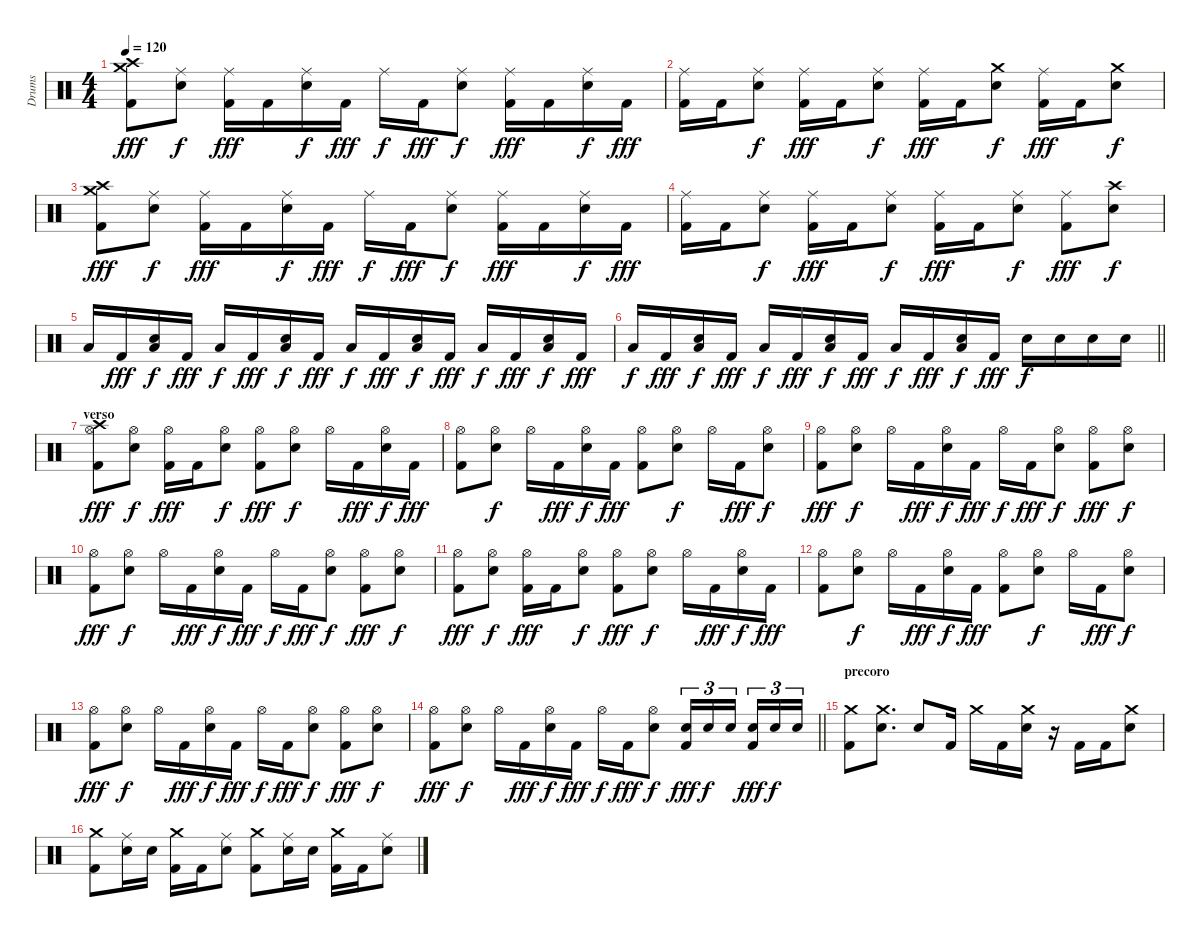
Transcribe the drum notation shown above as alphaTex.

\track ("Drums" "Drums") {instrument percussion}
\staff {score}
\articulation defaults
\ts (4 4)
\tempo 120
\clef neutral
\ks c
("Crash high (hit)" "Crash medium (hit)" "Kick (hit) 2").8{dy fff} ("Ride (middle)" "Electric Snare (hit)").8{dy f} ("Ride (middle)" "Kick (hit) 2").16{dy fff} "Kick (hit) 2".16 ("Ride (middle)" "Electric Snare (hit)").16{dy f} "Kick (hit) 2".16{dy fff} "Ride (middle)".16{dy f} "Kick (hit) 2".16{dy fff} ("Ride (middle)" "Electric Snare (hit)").8{dy f} ("Ride (middle)" "Kick (hit) 2").16{dy fff} "Kick (hit) 2".16 ("Ride (middle)" "Electric Snare (hit)").16{dy f} "Kick (hit) 2".16{dy fff} |
("Ride (middle)" "Kick (hit) 2").16 "Kick (hit) 2".16 ("Ride (middle)" "Electric Snare (hit)").8{dy f} ("Ride (middle)" "Kick (hit) 2").16{dy fff} "Kick (hit) 2".16 ("Ride (middle)" "Electric Snare (hit)").8{dy f} ("Ride (middle)" "Kick (hit) 2").16{dy fff} "Kick (hit) 2".16 ("Crash medium (hit)" "Electric Snare (hit)").8{dy f} ("Ride (middle)" "Kick (hit) 2").16{dy fff} "Kick (hit) 2".16 ("Crash medium (hit)" "Electric Snare (hit)").8{dy f} |
("Crash high (hit)" "Crash medium (hit)" "Kick (hit) 2").8{dy fff} ("Ride (middle)" "Electric Snare (hit)").8{dy f} ("Ride (middle)" "Kick (hit) 2").16{dy fff} "Kick (hit) 2".16 ("Ride (middle)" "Electric Snare (hit)").16{dy f} "Kick (hit) 2".16{dy fff} "Ride (middle)".16{dy f} "Kick (hit) 2".16{dy fff} ("Ride (middle)" "Electric Snare (hit)").8{dy f} ("Ride (middle)" "Kick (hit) 2").16{dy fff} "Kick (hit) 2".16 ("Ride (middle)" "Electric Snare (hit)").16{dy f} "Kick (hit) 2".16{dy fff} |
("Ride (middle)" "Kick (hit) 2").16 "Kick (hit) 2".16 ("Ride (middle)" "Electric Snare (hit)").8{dy f} ("Ride (middle)" "Kick (hit) 2").16{dy fff} "Kick (hit) 2".16 ("Ride (middle)" "Electric Snare (hit)").8{dy f} ("Ride (middle)" "Kick (hit) 2").16{dy fff} "Kick (hit) 2".16 ("Ride (middle)" "Electric Snare (hit)").8{dy f} ("Ride (middle)" "Kick (hit) 2").8{dy fff} ("Crash high (hit)" "Electric Snare (hit)").8{dy f} |
"Low Floor Tom (hit)".16 "Kick (hit) 2".16{dy fff} ("Low Floor Tom (hit)" "Electric Snare (hit)").16{dy f} "Kick (hit) 2".16{dy fff} "Low Floor Tom (hit)".16{dy f} "Kick (hit) 2".16{dy fff} ("Low Floor Tom (hit)" "Electric Snare (hit)").16{dy f} "Kick (hit) 2".16{dy fff} "Low Floor Tom (hit)".16{dy f} "Kick (hit) 2".16{dy fff} ("Low Floor Tom (hit)" "Electric Snare (hit)").16{dy f} "Kick (hit) 2".16{dy fff} "Low Floor Tom (hit)".16{dy f} "Kick (hit) 2".16{dy fff} ("Low Floor Tom (hit)" "Electric Snare (hit)").16{dy f} "Kick (hit) 2".16{dy fff} |
\barLineRight lightlight "Low Floor Tom (hit)".16{dy f} "Kick (hit) 2".16{dy fff}
("Low Floor Tom (hit)" "Electric Snare (hit)").16{dy f} "Kick (hit) 2".16{dy fff} "Low Floor Tom (hit)".16{dy f} "Kick (hit) 2".16{dy fff} ("Low Floor Tom (hit)" "Electric Snare (hit)").16{dy f} "Kick (hit) 2".16{dy fff} "Low Floor Tom (hit)".16{dy f} "Kick (hit) 2".16{dy fff} ("Low Floor Tom (hit)" "Electric Snare (hit)").16{dy f} "Kick (hit) 2".16{dy fff} "Electric Snare (hit)".16{dy f} "Electric Snare (hit)".16 "Electric Snare (hit)".16 "Electric Snare (hit)".16 |
\section ("" "verso")
("Crash high (hit)" "Hi-Hat (open)" "Kick (hit) 2").8{dy fff} ("Hi-Hat (open)" "Electric Snare (hit)").8{dy f} ("Hi-Hat (open)" "Kick (hit) 2").16{dy fff} "Kick (hit) 2".16 ("Hi-Hat (open)" "Electric Snare (hit)").8{dy f} ("Hi-Hat (open)" "Kick (hit) 2").8{dy fff} ("Hi-Hat (open)" "Electric Snare (hit)").8{dy f} "Hi-Hat (open)".16 "Kick (hit) 2".16{dy fff} ("Hi-Hat (open)" "Electric Snare (hit)").16{dy f} "Kick (hit) 2".16{dy fff} |
("Hi-Hat (open)" "Kick (hit) 2").8 ("Hi-Hat (open)" "Electric Snare (hit)").8{dy f} "Hi-Hat (open)".16 "Kick (hit) 2".16{dy fff} ("Hi-Hat (open)" "Electric Snare (hit)").16{dy f} "Kick (hit) 2".16{dy fff} ("Hi-Hat (open)" "Kick (hit) 2").8 ("Hi-Hat (open)" "Electric Snare (hit)").8{dy f} "Hi-Hat (open)".16 "Kick (hit) 2".16{dy fff} ("Hi-Hat (open)" "Electric Snare (hit)").8{dy f} |
("Hi-Hat (open)" "Kick (hit) 2").8{dy fff} ("Hi-Hat (open)" "Electric Snare (hit)").8{dy f} "Hi-Hat (open)".16 "Kick (hit) 2".16{dy fff} ("Hi-Hat (open)" "Electric Snare (hit)").16{dy f} "Kick (hit) 2".16{dy fff} "Hi-Hat (open)".16{dy f} "Kick (hit) 2".16{dy fff} ("Hi-Hat (open)" "Electric Snare (hit)").8{dy f} ("Hi-Hat (open)" "Kick (hit) 2").8{dy fff} ("Hi-Hat (open)" "Electric Snare (hit)").8{dy f} |
("Hi-Hat (open)" "Kick (hit) 2").8{dy fff} ("Hi-Hat (open)" "Electric Snare (hit)").8{dy f} "Hi-Hat (open)".16 "Kick (hit) 2".16{dy fff} ("Hi-Hat (open)" "Electric Snare (hit)").16{dy f} "Kick (hit) 2".16{dy fff} "Hi-Hat (open)".16{dy f} "Kick (hit) 2".16{dy fff} ("Hi-Hat (open)" "Electric Snare (hit)").8{dy f} ("Hi-Hat (open)" "Kick (hit) 2").8{dy fff} ("Hi-Hat (open)" "Electric Snare (hit)").8{dy f} |
("Hi-Hat (open)" "Kick (hit) 2").8{dy fff} ("Hi-Hat (open)" "Electric Snare (hit)").8{dy f} ("Hi-Hat (open)" "Kick (hit) 2").16{dy fff} "Kick (hit) 2".16 ("Hi-Hat (open)" "Electric Snare (hit)").8{dy f} ("Hi-Hat (open)" "Kick (hit) 2").8{dy fff} ("Hi-Hat (open)" "Electric Snare (hit)").8{dy f} "Hi-Hat (open)".16 "Kick (hit) 2".16{dy fff} ("Hi-Hat (open)" "Electric Snare (hit)").16{dy f} "Kick (hit) 2".16{dy fff} |
("Hi-Hat (open)" "Kick (hit) 2").8 ("Hi-Hat (open)" "Electric Snare (hit)").8{dy f} "Hi-Hat (open)".16 "Kick (hit) 2".16{dy fff} ("Hi-Hat (open)" "Electric Snare (hit)").16{dy f} "Kick (hit) 2".16{dy fff} ("Hi-Hat (open)" "Kick (hit) 2").8 ("Hi-Hat (open)" "Electric Snare (hit)").8{dy f} "Hi-Hat (open)".16 "Kick (hit) 2".16{dy fff} ("Hi-Hat (open)" "Electric Snare (hit)").8{dy f} |
("Hi-Hat (open)" "Kick (hit) 2").8{dy fff} ("Hi-Hat (open)" "Electric Snare (hit)").8{dy f} "Hi-Hat (open)".16 "Kick (hit) 2".16{dy fff} ("Hi-Hat (open)" "Electric Snare (hit)").16{dy f} "Kick (hit) 2".16{dy fff} "Hi-Hat (open)".16{dy f} "Kick (hit) 2".16{dy fff} ("Hi-Hat (open)" "Electric Snare (hit)").8{dy f} ("Hi-Hat (open)" "Kick (hit) 2").8{dy fff} ("Hi-Hat (open)" "Electric Snare (hit)").8{dy f} |
\barLineRight lightlight
("Hi-Hat (open)" "Kick (hit) 2").8{dy fff} ("Hi-Hat (open)" "Electric Snare (hit)").8{dy f} "Hi-Hat (open)".16 "Kick (hit) 2".16{dy fff} ("Hi-Hat (open)" "Electric Snare (hit)").16{dy f} "Kick (hit) 2".16{dy fff} "Hi-Hat (open)".16{dy f} "Kick (hit) 2".16{dy fff} ("Hi-Hat (open)" "Electric Snare (hit)").8{dy f} ("Electric Snare (hit)" "Kick (hit) 2").16{tu (3 2) dy fff} "Electric Snare (hit)".16{tu (3 2) dy f} "Electric Snare (hit)".16{tu (3 2)} ("Electric Snare (hit)" "Kick (hit) 2").16{tu (3 2) dy fff} "Electric Snare (hit)".16{tu (3 2) dy f} "Electric Snare (hit)".16{tu (3 2)} |
\section ("" "precoro")
("Crash medium (hit)" "Kick (hit) 2").8 ("Crash medium (hit)" "Electric Snare (hit)").8{d} "Electric Snare (hit)".8 "Kick (hit) 2".16 "Crash medium (hit)".16 "Kick (hit) 2".16 ("Crash medium (hit)" "Electric Snare (hit)").16 r.16 "Kick (hit) 2".16 "Kick (hit) 2".16 ("Crash medium (hit)" "Electric Snare (hit)").8 |
("Crash medium (hit)" "Kick (hit) 2").8 ("Ride (middle)" "Electric Snare (hit)").16 "Electric Snare (hit)".16 ("Crash medium (hit)" "Kick (hit) 2").16 "Kick (hit) 2".16 ("Ride (middle)" "Electric Snare (hit)").8 ("Crash medium (hit)" "Kick (hit) 2").8 ("Ride (middle)" "Electric Snare (hit)").16 "Electric Snare (hit)".16 ("Crash medium (hit)" "Kick (hit) 2").16 "Kick (hit) 2".16 ("Ride (middle)" "Electric Snare (hit)").8
